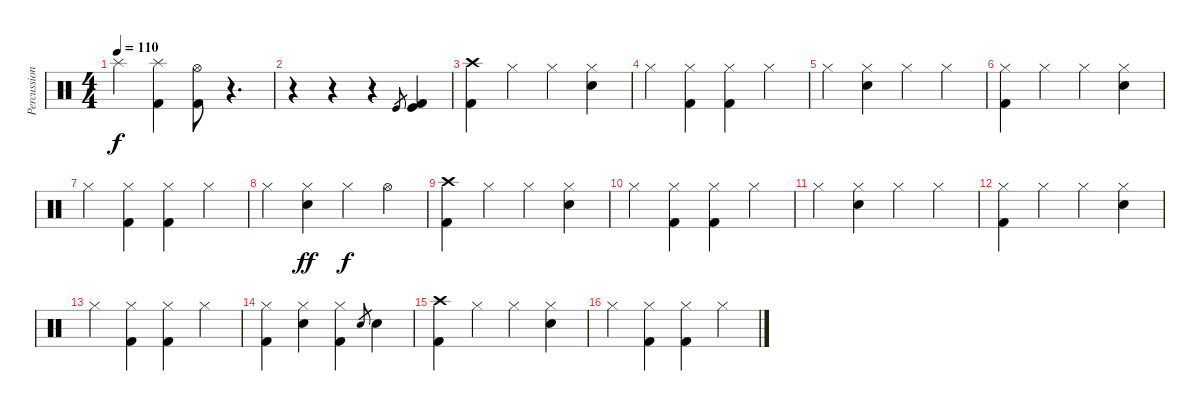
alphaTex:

\track ("Percussion" "Percussion") {instrument percussion}
\staff {score}
\articulation defaults
\ts (4 4)
\tempo 110
\clef neutral
\ks c "Splash (hit)".4{dy f}
("Splash (hit)" "Kick (hit) 2").4 ("Hi-Hat (open)" "Kick (hit) 2").8 r.4{d} |
r.4 r.4 r.4 "Kick (hit)".8{gr} ("Kick (hit)" "Kick (hit) 2").4 |
("Crash high (hit)" "Kick (hit) 2").4 "Hi-Hat (closed)".4 "Hi-Hat (closed)".4 ("Hi-Hat (closed)" "Electric Snare (hit)").4 |
"Hi-Hat (closed)".4 ("Hi-Hat (closed)" "Kick (hit) 2").4 ("Hi-Hat (closed)" "Kick (hit) 2").4 "Hi-Hat (closed)".4 |
"Hi-Hat (closed)".4 ("Hi-Hat (closed)" "Electric Snare (hit)").4 "Hi-Hat (closed)".4 "Hi-Hat (closed)".4 |
("Hi-Hat (closed)" "Kick (hit) 2").4 "Hi-Hat (closed)".4 "Hi-Hat (closed)".4 ("Hi-Hat (closed)" "Electric Snare (hit)").4 |
"Hi-Hat (closed)".4 ("Hi-Hat (closed)" "Kick (hit) 2").4 ("Hi-Hat (closed)" "Kick (hit) 2").4 "Hi-Hat (closed)".4 |
"Hi-Hat (closed)".4 ("Hi-Hat (closed)" "Electric Snare (hit)").4{dy ff} "Hi-Hat (closed)".4{dy f} "Hi-Hat (open)".4 |
("Crash high (hit)" "Kick (hit) 2").4 "Hi-Hat (closed)".4 "Hi-Hat (closed)".4 ("Hi-Hat (closed)" "Electric Snare (hit)").4 |
"Hi-Hat (closed)".4 ("Hi-Hat (closed)" "Kick (hit) 2").4 ("Hi-Hat (closed)" "Kick (hit) 2").4 "Hi-Hat (closed)".4 |
"Hi-Hat (closed)".4 ("Hi-Hat (closed)" "Electric Snare (hit)").4 "Hi-Hat (closed)".4 "Hi-Hat (closed)".4 |
("Hi-Hat (closed)" "Kick (hit) 2").4 "Hi-Hat (closed)".4 "Hi-Hat (closed)".4 ("Hi-Hat (closed)" "Electric Snare (hit)").4 |
"Hi-Hat (closed)".4 ("Hi-Hat (closed)" "Kick (hit) 2").4 ("Hi-Hat (closed)" "Kick (hit) 2").4 "Hi-Hat (closed)".4 |
("Hi-Hat (closed)" "Kick (hit) 2").4 ("Hi-Hat (closed)" "Electric Snare (hit)").4 ("Hi-Hat (closed)" "Kick (hit) 2").4 "Electric Snare (hit)".8{gr} "Electric Snare (hit)".4 |
("Crash high (hit)" "Kick (hit) 2").4 "Hi-Hat (closed)".4 "Hi-Hat (closed)".4 ("Hi-Hat (closed)" "Electric Snare (hit)").4 |
"Hi-Hat (closed)".4 ("Hi-Hat (closed)" "Kick (hit) 2").4 ("Hi-Hat (closed)" "Kick (hit) 2").4 "Hi-Hat (closed)".4
